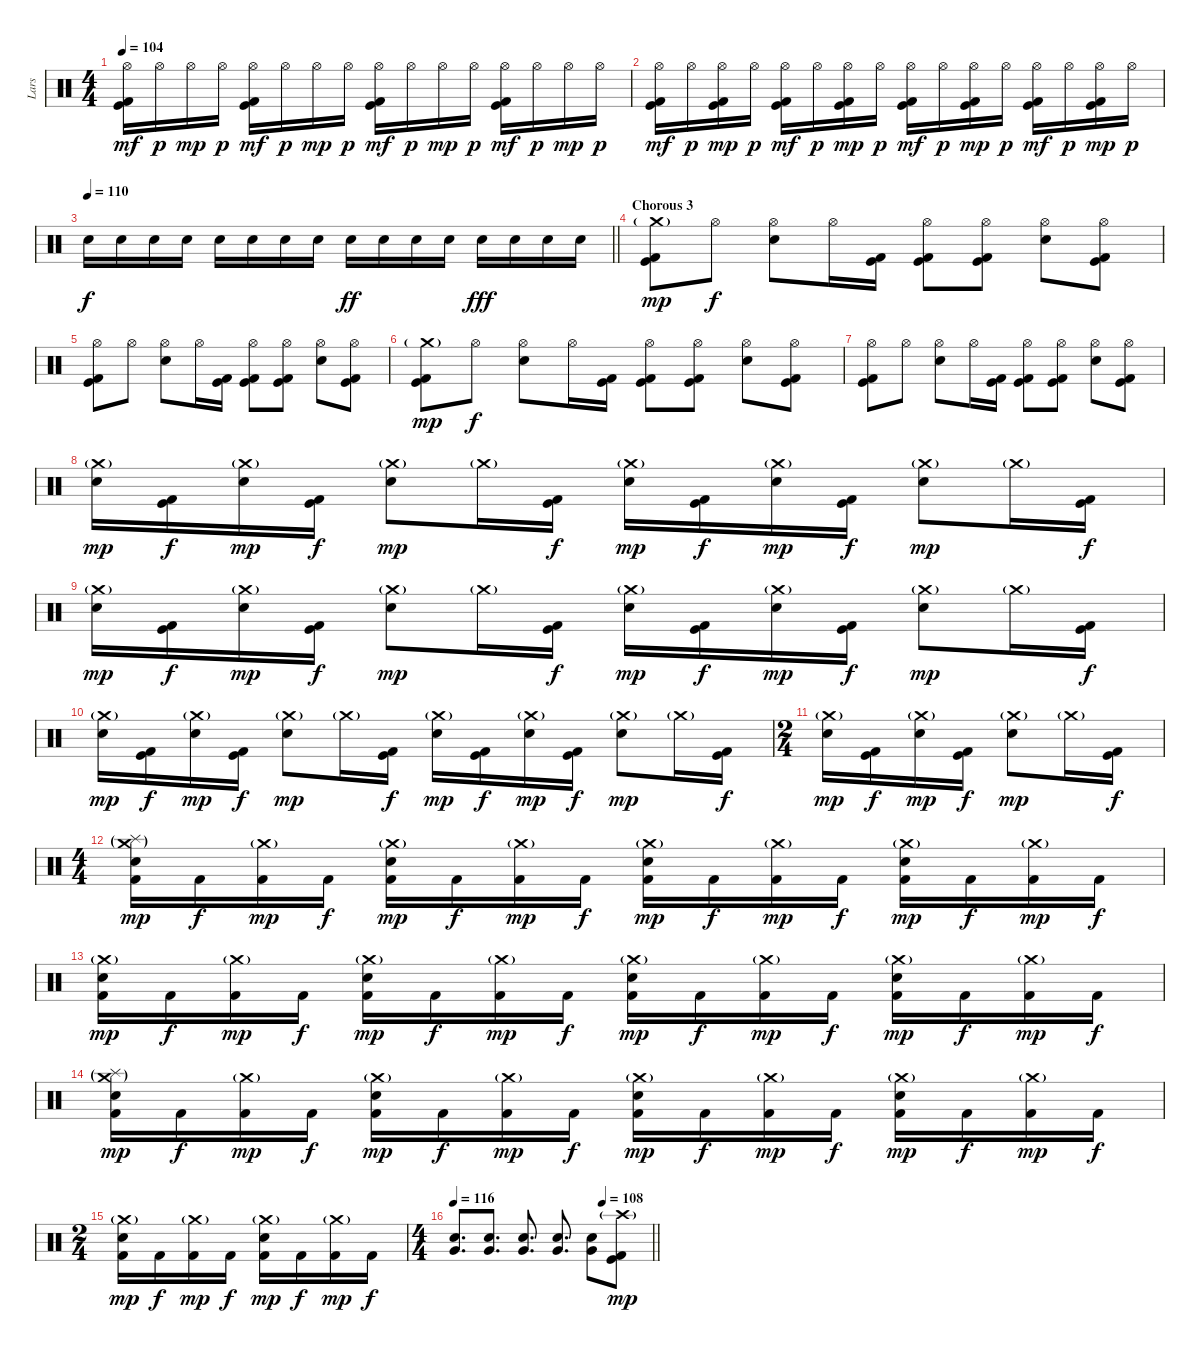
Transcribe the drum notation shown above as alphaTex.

\track ("Lars" "Lars") {instrument percussion}
\staff {score}
\articulation defaults
\ts (4 4)
\tempo 104
\clef neutral
\ks c
("Hi-Hat (open)" "Kick (hit)" "Kick (hit) 2").16{dy mf} "Hi-Hat (open)".16{dy p} "Hi-Hat (open)".16{dy mp} "Hi-Hat (open)".16{dy p} ("Hi-Hat (open)" "Kick (hit)" "Kick (hit) 2").16{dy mf} "Hi-Hat (open)".16{dy p} "Hi-Hat (open)".16{dy mp} "Hi-Hat (open)".16{dy p} ("Hi-Hat (open)" "Kick (hit)" "Kick (hit) 2").16{dy mf} "Hi-Hat (open)".16{dy p} "Hi-Hat (open)".16{dy mp} "Hi-Hat (open)".16{dy p} ("Hi-Hat (open)" "Kick (hit)" "Kick (hit) 2").16{dy mf} "Hi-Hat (open)".16{dy p} "Hi-Hat (open)".16{dy mp} "Hi-Hat (open)".16{dy p} |
("Hi-Hat (open)" "Kick (hit)" "Kick (hit) 2").16{dy mf} "Hi-Hat (open)".16{dy p} ("Hi-Hat (open)" "Kick (hit)" "Kick (hit) 2").16{dy mp} "Hi-Hat (open)".16{dy p} ("Hi-Hat (open)" "Kick (hit)" "Kick (hit) 2").16{dy mf} "Hi-Hat (open)".16{dy p} ("Hi-Hat (open)" "Kick (hit)" "Kick (hit) 2").16{dy mp} "Hi-Hat (open)".16{dy p} ("Hi-Hat (open)" "Kick (hit)" "Kick (hit) 2").16{dy mf} "Hi-Hat (open)".16{dy p} ("Hi-Hat (open)" "Kick (hit)" "Kick (hit) 2").16{dy mp} "Hi-Hat (open)".16{dy p} ("Hi-Hat (open)" "Kick (hit)" "Kick (hit) 2").16{dy mf} "Hi-Hat (open)".16{dy p} ("Hi-Hat (open)" "Kick (hit)" "Kick (hit) 2").16{dy mp} "Hi-Hat (open)".16{dy p} |
\tempo 110
\barLineRight lightlight "Electric Snare (hit)".16{dy f} "Electric Snare (hit)".16 "Electric Snare (hit)".16 "Electric Snare (hit)".16 "Electric Snare (hit)".16 "Electric Snare (hit)".16 "Electric Snare (hit)".16 "Electric Snare (hit)".16 "Electric Snare (hit)".16{dy ff} "Electric Snare (hit)".16 "Electric Snare (hit)".16 "Electric Snare (hit)".16 "Electric Snare (hit)".16{dy fff} "Electric Snare (hit)".16 "Electric Snare (hit)".16 "Electric Snare (hit)".16
|
\section ("" "Chorous 3")
("Crash medium (hit)"{g} "Kick (hit)" "Kick (hit) 2").8{dy mp} "Hi-Hat (open)".8{dy f} ("Hi-Hat (open)" "Electric Snare (hit)").8 "Hi-Hat (open)".16 ("Kick (hit)" "Kick (hit) 2").16 ("Hi-Hat (open)" "Kick (hit)" "Kick (hit) 2").8 ("Hi-Hat (open)" "Kick (hit)" "Kick (hit) 2").8 ("Hi-Hat (open)" "Electric Snare (hit)").8 ("Hi-Hat (open)" "Kick (hit)" "Kick (hit) 2").8 |
("Hi-Hat (open)" "Kick (hit)" "Kick (hit) 2").8 "Hi-Hat (open)".8 ("Hi-Hat (open)" "Electric Snare (hit)").8 "Hi-Hat (open)".16 ("Kick (hit)" "Kick (hit) 2").16 ("Hi-Hat (open)" "Kick (hit)" "Kick (hit) 2").8 ("Hi-Hat (open)" "Kick (hit)" "Kick (hit) 2").8 ("Hi-Hat (open)" "Electric Snare (hit)").8 ("Hi-Hat (open)" "Kick (hit)" "Kick (hit) 2").8 |
("Crash medium (hit)"{g} "Kick (hit)" "Kick (hit) 2").8{dy mp} "Hi-Hat (open)".8{dy f} ("Hi-Hat (open)" "Electric Snare (hit)").8 "Hi-Hat (open)".16 ("Kick (hit)" "Kick (hit) 2").16 ("Hi-Hat (open)" "Kick (hit)" "Kick (hit) 2").8 ("Hi-Hat (open)" "Kick (hit)" "Kick (hit) 2").8 ("Hi-Hat (open)" "Electric Snare (hit)").8 ("Hi-Hat (open)" "Kick (hit)" "Kick (hit) 2").8 |
("Hi-Hat (open)" "Kick (hit)" "Kick (hit) 2").8 "Hi-Hat (open)".8 ("Hi-Hat (open)" "Electric Snare (hit)").8 "Hi-Hat (open)".16 ("Kick (hit)" "Kick (hit) 2").16 ("Hi-Hat (open)" "Kick (hit)" "Kick (hit) 2").8 ("Hi-Hat (open)" "Kick (hit)" "Kick (hit) 2").8 ("Hi-Hat (open)" "Electric Snare (hit)").8 ("Hi-Hat (open)" "Kick (hit)" "Kick (hit) 2").8 |
("Crash medium (hit)"{g} "Electric Snare (hit)").16{dy mp} ("Kick (hit)" "Kick (hit) 2").16{dy f} ("Crash medium (hit)"{g} "Electric Snare (hit)").16{dy mp} ("Kick (hit)" "Kick (hit) 2").16{dy f} ("Crash medium (hit)"{g} "Electric Snare (hit)").8{dy mp} "Crash medium (hit)"{g}.16 ("Kick (hit)" "Kick (hit) 2").16{dy f} ("Crash medium (hit)"{g} "Electric Snare (hit)").16{dy mp} ("Kick (hit)" "Kick (hit) 2").16{dy f} ("Crash medium (hit)"{g} "Electric Snare (hit)").16{dy mp} ("Kick (hit)" "Kick (hit) 2").16{dy f} ("Crash medium (hit)"{g} "Electric Snare (hit)").8{dy mp} "Crash medium (hit)"{g}.16 ("Kick (hit)" "Kick (hit) 2").16{dy f} |
("Crash medium (hit)"{g} "Electric Snare (hit)").16{dy mp} ("Kick (hit)" "Kick (hit) 2").16{dy f} ("Crash medium (hit)"{g} "Electric Snare (hit)").16{dy mp} ("Kick (hit)" "Kick (hit) 2").16{dy f} ("Crash medium (hit)"{g} "Electric Snare (hit)").8{dy mp} "Crash medium (hit)"{g}.16 ("Kick (hit)" "Kick (hit) 2").16{dy f} ("Crash medium (hit)"{g} "Electric Snare (hit)").16{dy mp} ("Kick (hit)" "Kick (hit) 2").16{dy f} ("Crash medium (hit)"{g} "Electric Snare (hit)").16{dy mp} ("Kick (hit)" "Kick (hit) 2").16{dy f} ("Crash medium (hit)"{g} "Electric Snare (hit)").8{dy mp} "Crash medium (hit)"{g}.16 ("Kick (hit)" "Kick (hit) 2").16{dy f} |
("Crash medium (hit)"{g} "Electric Snare (hit)").16{dy mp} ("Kick (hit)" "Kick (hit) 2").16{dy f} ("Crash medium (hit)"{g} "Electric Snare (hit)").16{dy mp} ("Kick (hit)" "Kick (hit) 2").16{dy f} ("Crash medium (hit)"{g} "Electric Snare (hit)").8{dy mp} "Crash medium (hit)"{g}.16 ("Kick (hit)" "Kick (hit) 2").16{dy f} ("Crash medium (hit)"{g} "Electric Snare (hit)").16{dy mp} ("Kick (hit)" "Kick (hit) 2").16{dy f} ("Crash medium (hit)"{g} "Electric Snare (hit)").16{dy mp} ("Kick (hit)" "Kick (hit) 2").16{dy f} ("Crash medium (hit)"{g} "Electric Snare (hit)").8{dy mp} "Crash medium (hit)"{g}.16 ("Kick (hit)" "Kick (hit) 2").16{dy f} |
\ts (2 4)
("Crash medium (hit)"{g} "Electric Snare (hit)").16{dy mp} ("Kick (hit)" "Kick (hit) 2").16{dy f} ("Crash medium (hit)"{g} "Electric Snare (hit)").16{dy mp} ("Kick (hit)" "Kick (hit) 2").16{dy f} ("Crash medium (hit)"{g} "Electric Snare (hit)").8{dy mp} "Crash medium (hit)"{g}.16 ("Kick (hit)" "Kick (hit) 2").16{dy f} |
\ts (4 4)
("Crash medium (hit)"{g} "Splash (hit)"{g} "Electric Snare (hit)" "Kick (hit) 2").16{dy mp} "Kick (hit) 2".16{dy f} ("Crash medium (hit)"{g} "Kick (hit) 2").16{dy mp} "Kick (hit) 2".16{dy f} ("Crash medium (hit)"{g} "Electric Snare (hit)" "Kick (hit) 2").16{dy mp} "Kick (hit) 2".16{dy f} ("Crash medium (hit)"{g} "Kick (hit) 2").16{dy mp} "Kick (hit) 2".16{dy f} ("Crash medium (hit)"{g} "Electric Snare (hit)" "Kick (hit) 2").16{dy mp} "Kick (hit) 2".16{dy f} ("Crash medium (hit)"{g} "Kick (hit) 2").16{dy mp} "Kick (hit) 2".16{dy f} ("Crash medium (hit)"{g} "Electric Snare (hit)" "Kick (hit) 2").16{dy mp} "Kick (hit) 2".16{dy f} ("Crash medium (hit)"{g} "Kick (hit) 2").16{dy mp} "Kick (hit) 2".16{dy f} |
("Crash medium (hit)"{g} "Electric Snare (hit)" "Kick (hit) 2").16{dy mp} "Kick (hit) 2".16{dy f} ("Crash medium (hit)"{g} "Kick (hit) 2").16{dy mp} "Kick (hit) 2".16{dy f} ("Crash medium (hit)"{g} "Electric Snare (hit)" "Kick (hit) 2").16{dy mp} "Kick (hit) 2".16{dy f} ("Crash medium (hit)"{g} "Kick (hit) 2").16{dy mp} "Kick (hit) 2".16{dy f} ("Crash medium (hit)"{g} "Electric Snare (hit)" "Kick (hit) 2").16{dy mp} "Kick (hit) 2".16{dy f} ("Crash medium (hit)"{g} "Kick (hit) 2").16{dy mp} "Kick (hit) 2".16{dy f} ("Crash medium (hit)"{g} "Electric Snare (hit)" "Kick (hit) 2").16{dy mp} "Kick (hit) 2".16{dy f} ("Crash medium (hit)"{g} "Kick (hit) 2").16{dy mp} "Kick (hit) 2".16{dy f} |
("Crash medium (hit)"{g} "Splash (hit)"{g} "Electric Snare (hit)" "Kick (hit) 2").16{dy mp} "Kick (hit) 2".16{dy f} ("Crash medium (hit)"{g} "Kick (hit) 2").16{dy mp} "Kick (hit) 2".16{dy f} ("Crash medium (hit)"{g} "Electric Snare (hit)" "Kick (hit) 2").16{dy mp} "Kick (hit) 2".16{dy f} ("Crash medium (hit)"{g} "Kick (hit) 2").16{dy mp} "Kick (hit) 2".16{dy f} ("Crash medium (hit)"{g} "Electric Snare (hit)" "Kick (hit) 2").16{dy mp} "Kick (hit) 2".16{dy f} ("Crash medium (hit)"{g} "Kick (hit) 2").16{dy mp} "Kick (hit) 2".16{dy f} ("Crash medium (hit)"{g} "Electric Snare (hit)" "Kick (hit) 2").16{dy mp} "Kick (hit) 2".16{dy f} ("Crash medium (hit)"{g} "Kick (hit) 2").16{dy mp} "Kick (hit) 2".16{dy f} |
\ts (2 4)
("Crash medium (hit)"{g} "Electric Snare (hit)" "Kick (hit) 2").16{dy mp} "Kick (hit) 2".16{dy f} ("Crash medium (hit)"{g} "Kick (hit) 2").16{dy mp} "Kick (hit) 2".16{dy f} ("Crash medium (hit)"{g} "Electric Snare (hit)" "Kick (hit) 2").16{dy mp} "Kick (hit) 2".16{dy f} ("Crash medium (hit)"{g} "Kick (hit) 2").16{dy mp} "Kick (hit) 2".16{dy f} |
\ts (4 4)
\tempo 116
\tempo (108 0.75)
\barLineRight lightlight
("Electric Snare (hit)" "Very Low Tom (hit)").8{d} ("Electric Snare (hit)" "Very Low Tom (hit)").8{d} ("Electric Snare (hit)" "Very Low Tom (hit)").8{d} ("Electric Snare (hit)" "Very Low Tom (hit)").8{d} ("Electric Snare (hit)" "Very Low Tom (hit)").8 ("Crash high (hit)"{g} "Kick (hit)" "Kick (hit) 2").8{dy mp}
